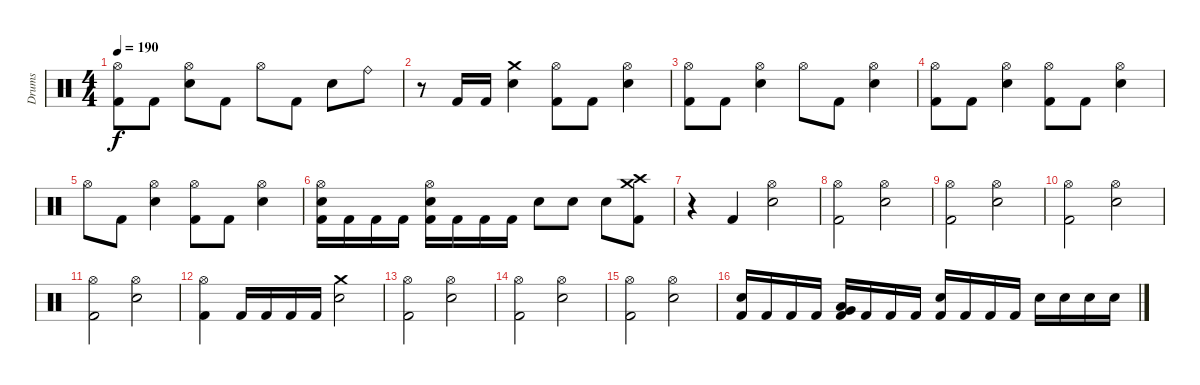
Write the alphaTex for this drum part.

\track ("Drums" "Drums") {instrument percussion}
\staff {score}
\articulation defaults
\ts (4 4)
\tempo 190
\clef neutral
\ks c
("Hi-Hat (open)" "Kick (hit) 2").8{dy f} "Kick (hit) 2".8 ("Hi-Hat (open)" "Snare (hit) 2").8 "Kick (hit) 2".8 "Hi-Hat (open)".8 "Kick (hit) 2".8 "Snare (hit) 2".8 "Ride (bell)".8 |
r.8 "Kick (hit) 2".16 "Kick (hit) 2".16 ("Crash medium (hit)" "Snare (hit) 2").4 ("Hi-Hat (open)" "Kick (hit) 2").8 "Kick (hit) 2".8 ("Hi-Hat (open)" "Snare (hit) 2").4 |
("Hi-Hat (open)" "Kick (hit) 2").8 "Kick (hit) 2".8 ("Hi-Hat (open)" "Snare (hit) 2").4 "Hi-Hat (open)".8 "Kick (hit) 2".8 ("Hi-Hat (open)" "Snare (hit) 2").4 |
("Hi-Hat (open)" "Kick (hit) 2").8 "Kick (hit) 2".8 ("Hi-Hat (open)" "Snare (hit) 2").4 ("Hi-Hat (open)" "Kick (hit) 2").8 "Kick (hit) 2".8 ("Hi-Hat (open)" "Snare (hit) 2").4 |
"Hi-Hat (open)".8 "Kick (hit) 2".8 ("Hi-Hat (open)" "Snare (hit) 2").4 ("Hi-Hat (open)" "Kick (hit) 2").8 "Kick (hit) 2".8 ("Hi-Hat (open)" "Snare (hit) 2").4 |
("Hi-Hat (open)" "Snare (hit) 2" "Kick (hit) 2").16 "Kick (hit) 2".16 "Kick (hit) 2".16 "Kick (hit) 2".16 ("Hi-Hat (open)" "Snare (hit) 2" "Kick (hit) 2").16 "Kick (hit) 2".16 "Kick (hit) 2".16 "Kick (hit) 2".16 "Snare (hit) 2".8 "Snare (hit) 2".8 "Snare (hit) 2".8 ("Crash high (hit)" "Crash medium (hit)" "Kick (hit) 2").8 |
r.4 "Kick (hit) 2".4 ("Hi-Hat (open)" "Snare (hit) 2").2 |
("Hi-Hat (open)" "Kick (hit) 2").2 ("Hi-Hat (open)" "Snare (hit) 2").2 |
("Hi-Hat (open)" "Kick (hit) 2").2 ("Hi-Hat (open)" "Snare (hit) 2").2 |
("Hi-Hat (open)" "Kick (hit) 2").2 ("Hi-Hat (open)" "Snare (hit) 2").2 |
("Hi-Hat (open)" "Kick (hit) 2").2 ("Hi-Hat (open)" "Snare (hit) 2").2 |
("Hi-Hat (open)" "Kick (hit) 2").4 "Kick (hit) 2".16 "Kick (hit) 2".16 "Kick (hit) 2".16 "Kick (hit) 2".16 ("Crash medium (hit)" "Snare (hit) 2").2 |
("Hi-Hat (open)" "Kick (hit) 2").2 ("Hi-Hat (open)" "Snare (hit) 2").2 |
("Hi-Hat (open)" "Kick (hit) 2").2 ("Hi-Hat (open)" "Snare (hit) 2").2 |
("Hi-Hat (open)" "Kick (hit) 2").2 ("Hi-Hat (open)" "Snare (hit) 2").2 |
("Snare (hit) 2" "Kick (hit) 2").16 "Kick (hit) 2".16 "Kick (hit) 2".16 "Kick (hit) 2".16 ("Very Low Tom (hit)" "Low Tom (hit)" "Kick (hit) 2").16 "Kick (hit) 2".16 "Kick (hit) 2".16 "Kick (hit) 2".16 ("Snare (hit) 2" "Kick (hit) 2").16 "Kick (hit) 2".16 "Kick (hit) 2".16 "Kick (hit) 2".16 "Snare (hit) 2".16 "Snare (hit) 2".16 "Snare (hit) 2".16 "Snare (hit) 2".16
